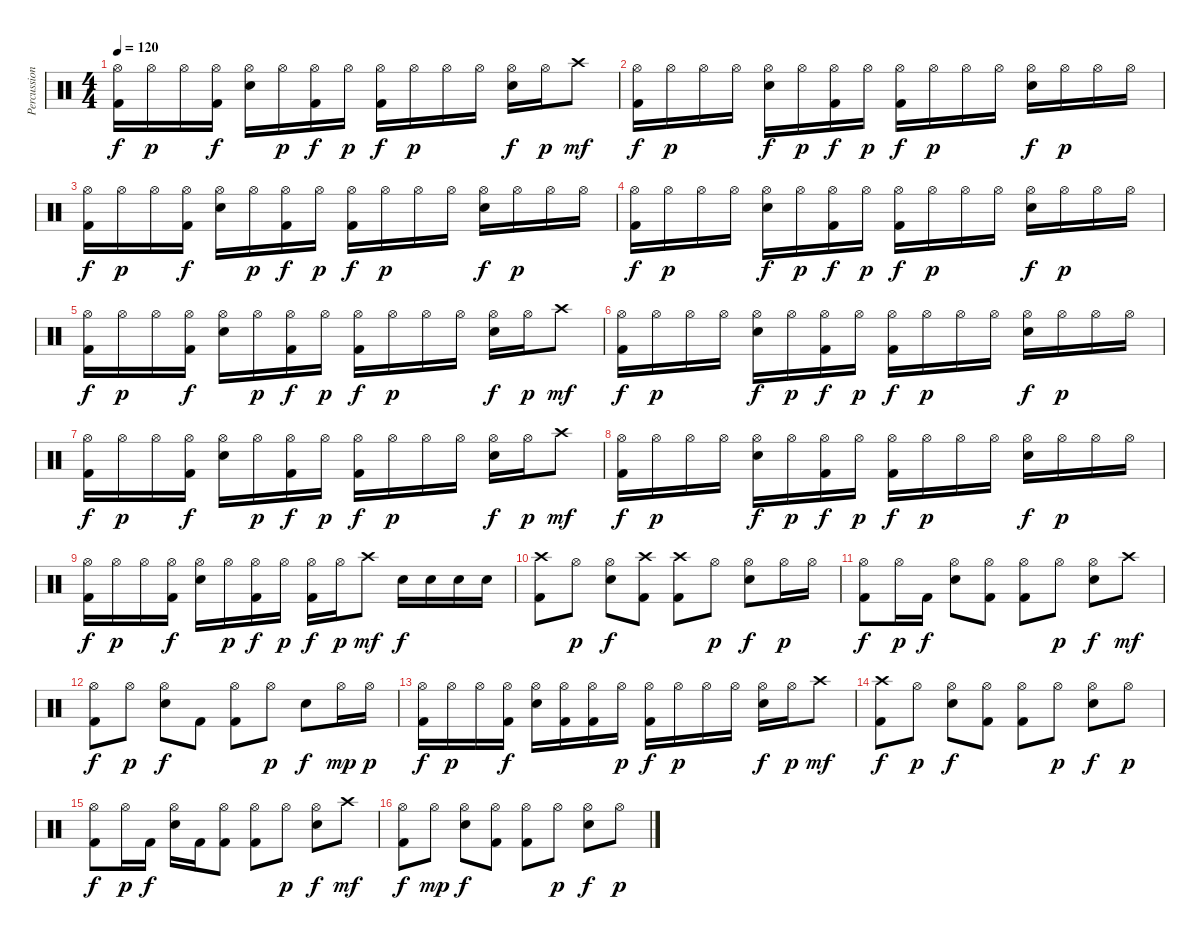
\track ("Percussion" "Percussion") {instrument percussion}
\staff {score}
\articulation defaults
\ts (4 4)
\tempo 120
\clef neutral
\ks c
("Hi-Hat (open)" "Kick (hit) 2").16{dy f} "Hi-Hat (open)".16{dy p} "Hi-Hat (open)".16 ("Hi-Hat (open)" "Kick (hit) 2").16{dy f} ("Hi-Hat (open)" "Electric Snare (hit)").16 "Hi-Hat (open)".16{dy p} ("Hi-Hat (open)" "Kick (hit) 2").16{dy f} "Hi-Hat (open)".16{dy p} ("Hi-Hat (open)" "Kick (hit) 2").16{dy f} "Hi-Hat (open)".16{dy p} "Hi-Hat (open)".16 "Hi-Hat (open)".16 ("Hi-Hat (open)" "Electric Snare (hit)").16{dy f} "Hi-Hat (open)".16{dy p} "Crash high (hit)".8{dy mf} |
("Hi-Hat (open)" "Kick (hit) 2").16{dy f} "Hi-Hat (open)".16{dy p} "Hi-Hat (open)".16 "Hi-Hat (open)".16 ("Hi-Hat (open)" "Electric Snare (hit)").16{dy f} "Hi-Hat (open)".16{dy p} ("Hi-Hat (open)" "Kick (hit) 2").16{dy f} "Hi-Hat (open)".16{dy p} ("Hi-Hat (open)" "Kick (hit) 2").16{dy f} "Hi-Hat (open)".16{dy p} "Hi-Hat (open)".16 "Hi-Hat (open)".16 ("Hi-Hat (open)" "Electric Snare (hit)").16{dy f} "Hi-Hat (open)".16{dy p} "Hi-Hat (open)".16 "Hi-Hat (open)".16 |
("Hi-Hat (open)" "Kick (hit) 2").16{dy f} "Hi-Hat (open)".16{dy p} "Hi-Hat (open)".16 ("Hi-Hat (open)" "Kick (hit) 2").16{dy f} ("Hi-Hat (open)" "Electric Snare (hit)").16 "Hi-Hat (open)".16{dy p} ("Hi-Hat (open)" "Kick (hit) 2").16{dy f} "Hi-Hat (open)".16{dy p} ("Hi-Hat (open)" "Kick (hit) 2").16{dy f} "Hi-Hat (open)".16{dy p} "Hi-Hat (open)".16 "Hi-Hat (open)".16 ("Hi-Hat (open)" "Electric Snare (hit)").16{dy f} "Hi-Hat (open)".16{dy p} "Hi-Hat (open)".16 "Hi-Hat (open)".16 |
("Hi-Hat (open)" "Kick (hit) 2").16{dy f} "Hi-Hat (open)".16{dy p} "Hi-Hat (open)".16 "Hi-Hat (open)".16 ("Hi-Hat (open)" "Electric Snare (hit)").16{dy f} "Hi-Hat (open)".16{dy p} ("Hi-Hat (open)" "Kick (hit) 2").16{dy f} "Hi-Hat (open)".16{dy p} ("Hi-Hat (open)" "Kick (hit) 2").16{dy f} "Hi-Hat (open)".16{dy p} "Hi-Hat (open)".16 "Hi-Hat (open)".16 ("Hi-Hat (open)" "Electric Snare (hit)").16{dy f} "Hi-Hat (open)".16{dy p} "Hi-Hat (open)".16 "Hi-Hat (open)".16 |
("Hi-Hat (open)" "Kick (hit) 2").16{dy f} "Hi-Hat (open)".16{dy p} "Hi-Hat (open)".16 ("Hi-Hat (open)" "Kick (hit) 2").16{dy f} ("Hi-Hat (open)" "Electric Snare (hit)").16 "Hi-Hat (open)".16{dy p} ("Hi-Hat (open)" "Kick (hit) 2").16{dy f} "Hi-Hat (open)".16{dy p} ("Hi-Hat (open)" "Kick (hit) 2").16{dy f} "Hi-Hat (open)".16{dy p} "Hi-Hat (open)".16 "Hi-Hat (open)".16 ("Hi-Hat (open)" "Electric Snare (hit)").16{dy f} "Hi-Hat (open)".16{dy p} "Crash high (hit)".8{dy mf} |
("Hi-Hat (open)" "Kick (hit) 2").16{dy f} "Hi-Hat (open)".16{dy p} "Hi-Hat (open)".16 "Hi-Hat (open)".16 ("Hi-Hat (open)" "Electric Snare (hit)").16{dy f} "Hi-Hat (open)".16{dy p} ("Hi-Hat (open)" "Kick (hit) 2").16{dy f} "Hi-Hat (open)".16{dy p} ("Hi-Hat (open)" "Kick (hit) 2").16{dy f} "Hi-Hat (open)".16{dy p} "Hi-Hat (open)".16 "Hi-Hat (open)".16 ("Hi-Hat (open)" "Electric Snare (hit)").16{dy f} "Hi-Hat (open)".16{dy p} "Hi-Hat (open)".16 "Hi-Hat (open)".16 |
("Hi-Hat (open)" "Kick (hit) 2").16{dy f} "Hi-Hat (open)".16{dy p} "Hi-Hat (open)".16 ("Hi-Hat (open)" "Kick (hit) 2").16{dy f} ("Hi-Hat (open)" "Electric Snare (hit)").16 "Hi-Hat (open)".16{dy p} ("Hi-Hat (open)" "Kick (hit) 2").16{dy f} "Hi-Hat (open)".16{dy p} ("Hi-Hat (open)" "Kick (hit) 2").16{dy f} "Hi-Hat (open)".16{dy p} "Hi-Hat (open)".16 "Hi-Hat (open)".16 ("Hi-Hat (open)" "Electric Snare (hit)").16{dy f} "Hi-Hat (open)".16{dy p} "Crash high (hit)".8{dy mf} |
("Hi-Hat (open)" "Kick (hit) 2").16{dy f} "Hi-Hat (open)".16{dy p} "Hi-Hat (open)".16 "Hi-Hat (open)".16 ("Hi-Hat (open)" "Electric Snare (hit)").16{dy f} "Hi-Hat (open)".16{dy p} ("Hi-Hat (open)" "Kick (hit) 2").16{dy f} "Hi-Hat (open)".16{dy p} ("Hi-Hat (open)" "Kick (hit) 2").16{dy f} "Hi-Hat (open)".16{dy p} "Hi-Hat (open)".16 "Hi-Hat (open)".16 ("Hi-Hat (open)" "Electric Snare (hit)").16{dy f} "Hi-Hat (open)".16{dy p} "Hi-Hat (open)".16 "Hi-Hat (open)".16 |
("Hi-Hat (open)" "Kick (hit) 2").16{dy f} "Hi-Hat (open)".16{dy p} "Hi-Hat (open)".16 ("Hi-Hat (open)" "Kick (hit) 2").16{dy f} ("Hi-Hat (open)" "Electric Snare (hit)").16 "Hi-Hat (open)".16{dy p} ("Hi-Hat (open)" "Kick (hit) 2").16{dy f} "Hi-Hat (open)".16{dy p} ("Hi-Hat (open)" "Kick (hit) 2").16{dy f} "Hi-Hat (open)".16{dy p} "Crash high (hit)".8{dy mf} "Electric Snare (hit)".16{dy f} "Electric Snare (hit)".16 "Electric Snare (hit)".16 "Electric Snare (hit)".16 |
("Crash high (hit)" "Kick (hit) 2").8 "Hi-Hat (open)".8{dy p} ("Hi-Hat (open)" "Electric Snare (hit)").8{dy f} ("Crash high (hit)" "Kick (hit) 2").8 ("Crash high (hit)" "Kick (hit) 2").8 "Hi-Hat (open)".8{dy p} ("Hi-Hat (open)" "Electric Snare (hit)").8{dy f} "Hi-Hat (open)".16{dy p} "Hi-Hat (open)".16 |
("Hi-Hat (open)" "Kick (hit) 2").8{dy f} "Hi-Hat (open)".16{dy p} "Kick (hit) 2".16{dy f} ("Hi-Hat (open)" "Electric Snare (hit)").8 ("Hi-Hat (open)" "Kick (hit) 2").8 ("Hi-Hat (open)" "Kick (hit) 2").8 "Hi-Hat (open)".8{dy p} ("Hi-Hat (open)" "Electric Snare (hit)").8{dy f} "Crash high (hit)".8{dy mf} |
("Hi-Hat (open)" "Kick (hit) 2").8{dy f} "Hi-Hat (open)".8{dy p} ("Hi-Hat (open)" "Electric Snare (hit)").8{dy f} "Kick (hit) 2".8 ("Hi-Hat (open)" "Kick (hit) 2").8 "Hi-Hat (open)".8{dy p} "Electric Snare (hit)".8{dy f} "Hi-Hat (open)".16{dy mp} "Hi-Hat (open)".16{dy p} |
("Hi-Hat (open)" "Kick (hit) 2").16{dy f} "Hi-Hat (open)".16{dy p} "Hi-Hat (open)".16 ("Hi-Hat (open)" "Kick (hit) 2").16{dy f} ("Hi-Hat (open)" "Electric Snare (hit)").16 ("Hi-Hat (open)" "Kick (hit) 2").16 ("Hi-Hat (open)" "Kick (hit) 2").16 "Hi-Hat (open)".16{dy p} ("Hi-Hat (open)" "Kick (hit) 2").16{dy f} "Hi-Hat (open)".16{dy p} "Hi-Hat (open)".16 "Hi-Hat (open)".16 ("Hi-Hat (open)" "Electric Snare (hit)").16{dy f} "Hi-Hat (open)".16{dy p} "Crash high (hit)".8{dy mf} |
("Crash high (hit)" "Kick (hit) 2").8{dy f} "Hi-Hat (open)".8{dy p} ("Hi-Hat (open)" "Electric Snare (hit)").8{dy f} ("Hi-Hat (open)" "Kick (hit) 2").8 ("Hi-Hat (open)" "Kick (hit) 2").8 "Hi-Hat (open)".8{dy p} ("Hi-Hat (open)" "Electric Snare (hit)").8{dy f} "Hi-Hat (open)".8{dy p} |
("Hi-Hat (open)" "Kick (hit) 2").8{dy f} "Hi-Hat (open)".16{dy p} "Kick (hit) 2".16{dy f} ("Hi-Hat (open)" "Electric Snare (hit)").16 "Kick (hit) 2".16 ("Hi-Hat (open)" "Kick (hit) 2").8 ("Hi-Hat (open)" "Kick (hit) 2").8 "Hi-Hat (open)".8{dy p} ("Hi-Hat (open)" "Electric Snare (hit)").8{dy f} "Crash high (hit)".8{dy mf} |
("Hi-Hat (open)" "Kick (hit) 2").8{dy f} "Hi-Hat (open)".8{dy mp} ("Hi-Hat (open)" "Electric Snare (hit)").8{dy f} ("Hi-Hat (open)" "Kick (hit) 2").8 ("Hi-Hat (open)" "Kick (hit) 2").8 "Hi-Hat (open)".8{dy p} ("Hi-Hat (open)" "Electric Snare (hit)").8{dy f} "Hi-Hat (open)".8{dy p}
